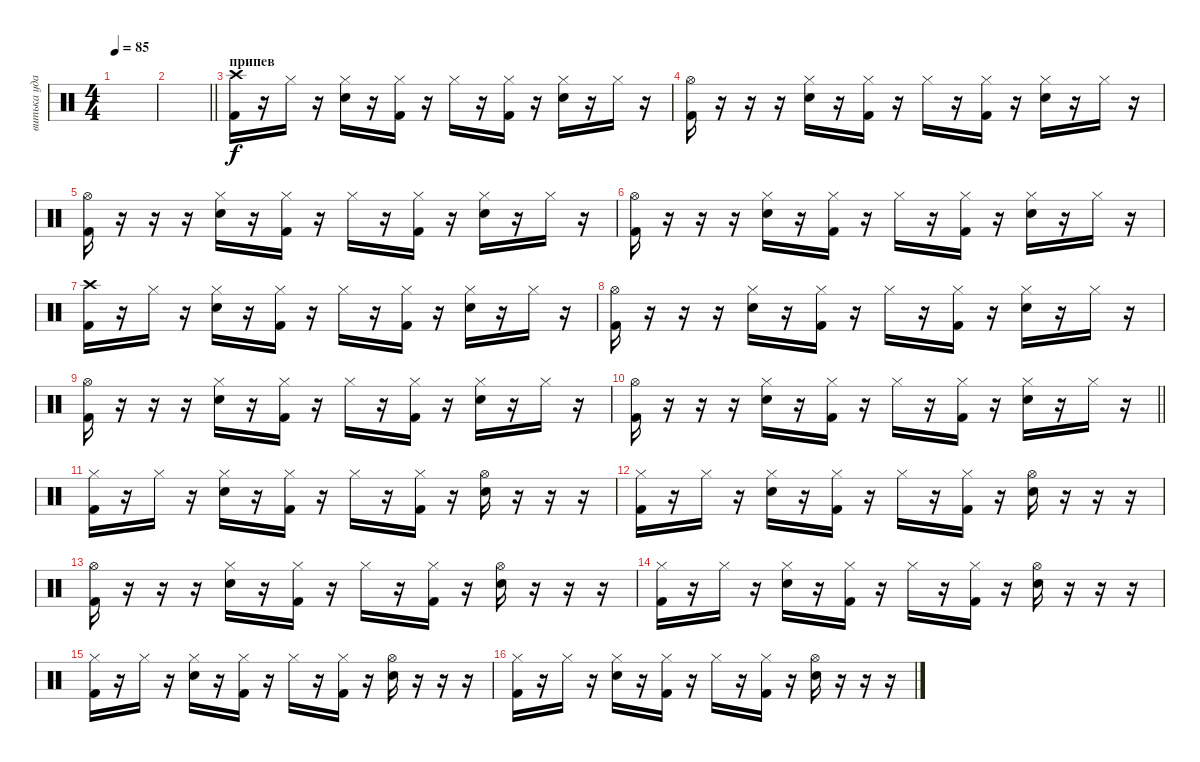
\track ("витька ударные" "витька уда") {instrument percussion}
\staff {score}
\articulation defaults
\ts (4 4)
\tempo 85
\clef neutral
\ks c
|
\barLineRight lightlight
|
\section ("" "припев")
("Kick (hit) 2" "Crash high (hit)").16 r.16 "Hi-Hat (closed)".16 r.16 ("Snare (hit) 2" "Hi-Hat (closed)").16 r.16 ("Kick (hit) 2" "Hi-Hat (closed)").16 r.16 "Hi-Hat (closed)".16 r.16 ("Kick (hit) 2" "Hi-Hat (closed)").16 r.16 ("Snare (hit) 2" "Hi-Hat (closed)").16 r.16 "Hi-Hat (closed)".16 r.16 |
("Kick (hit) 2" "Hi-Hat (open)").16 r.16 r.16 r.16 ("Snare (hit) 2" "Hi-Hat (closed)").16 r.16 ("Kick (hit) 2" "Hi-Hat (closed)").16 r.16 "Hi-Hat (closed)".16 r.16 ("Kick (hit) 2" "Hi-Hat (closed)").16 r.16 ("Snare (hit) 2" "Hi-Hat (closed)").16 r.16 "Hi-Hat (closed)".16 r.16 |
("Kick (hit) 2" "Hi-Hat (open)").16 r.16 r.16 r.16 ("Snare (hit) 2" "Hi-Hat (closed)").16 r.16 ("Kick (hit) 2" "Hi-Hat (closed)").16 r.16 "Hi-Hat (closed)".16 r.16 ("Kick (hit) 2" "Hi-Hat (closed)").16 r.16 ("Snare (hit) 2" "Hi-Hat (closed)").16 r.16 "Hi-Hat (closed)".16 r.16 |
("Kick (hit) 2" "Hi-Hat (open)").16 r.16 r.16 r.16 ("Snare (hit) 2" "Hi-Hat (closed)").16 r.16 ("Kick (hit) 2" "Hi-Hat (closed)").16 r.16 "Hi-Hat (closed)".16 r.16 ("Kick (hit) 2" "Hi-Hat (closed)").16 r.16 ("Snare (hit) 2" "Hi-Hat (closed)").16 r.16 "Hi-Hat (closed)".16 r.16 |
("Kick (hit) 2" "Crash high (hit)").16 r.16 "Hi-Hat (closed)".16 r.16 ("Snare (hit) 2" "Hi-Hat (closed)").16 r.16 ("Kick (hit) 2" "Hi-Hat (closed)").16 r.16 "Hi-Hat (closed)".16 r.16 ("Kick (hit) 2" "Hi-Hat (closed)").16 r.16 ("Snare (hit) 2" "Hi-Hat (closed)").16 r.16 "Hi-Hat (closed)".16 r.16 |
("Kick (hit) 2" "Hi-Hat (open)").16 r.16 r.16 r.16 ("Snare (hit) 2" "Hi-Hat (closed)").16 r.16 ("Kick (hit) 2" "Hi-Hat (closed)").16 r.16 "Hi-Hat (closed)".16 r.16 ("Kick (hit) 2" "Hi-Hat (closed)").16 r.16 ("Snare (hit) 2" "Hi-Hat (closed)").16 r.16 "Hi-Hat (closed)".16 r.16 |
("Kick (hit) 2" "Hi-Hat (open)").16 r.16 r.16 r.16 ("Snare (hit) 2" "Hi-Hat (closed)").16 r.16 ("Kick (hit) 2" "Hi-Hat (closed)").16 r.16 "Hi-Hat (closed)".16 r.16 ("Kick (hit) 2" "Hi-Hat (closed)").16 r.16 ("Snare (hit) 2" "Hi-Hat (closed)").16 r.16 "Hi-Hat (closed)".16 r.16 |
\barLineRight lightlight
("Kick (hit) 2" "Hi-Hat (open)").16 r.16 r.16 r.16 ("Snare (hit) 2" "Hi-Hat (closed)").16 r.16 ("Kick (hit) 2" "Hi-Hat (closed)").16 r.16 "Hi-Hat (closed)".16 r.16 ("Kick (hit) 2" "Hi-Hat (closed)").16 r.16 ("Snare (hit) 2" "Hi-Hat (closed)").16 r.16 "Hi-Hat (closed)".16 r.16 |
("Kick (hit) 2" "Hi-Hat (closed)").16 r.16 "Hi-Hat (closed)".16 r.16 ("Snare (hit) 2" "Hi-Hat (closed)").16 r.16 ("Kick (hit) 2" "Hi-Hat (closed)").16 r.16 "Hi-Hat (closed)".16 r.16 ("Kick (hit) 2" "Hi-Hat (closed)").16 r.16 ("Snare (hit) 2" "Hi-Hat (open)").16 r.16 r.16 r.16 |
("Kick (hit) 2" "Hi-Hat (closed)").16 r.16 "Hi-Hat (closed)".16 r.16 ("Snare (hit) 2" "Hi-Hat (closed)").16 r.16 ("Kick (hit) 2" "Hi-Hat (closed)").16 r.16 "Hi-Hat (closed)".16 r.16 ("Kick (hit) 2" "Hi-Hat (closed)").16 r.16 ("Snare (hit) 2" "Hi-Hat (open)").16 r.16 r.16 r.16 |
("Kick (hit) 2" "Hi-Hat (open)").16 r.16 r.16 r.16 ("Snare (hit) 2" "Hi-Hat (closed)").16 r.16 ("Kick (hit) 2" "Hi-Hat (closed)").16 r.16 "Hi-Hat (closed)".16 r.16 ("Kick (hit) 2" "Hi-Hat (closed)").16 r.16 ("Snare (hit) 2" "Hi-Hat (open)").16 r.16 r.16 r.16 |
("Kick (hit) 2" "Hi-Hat (closed)").16 r.16 "Hi-Hat (closed)".16 r.16 ("Snare (hit) 2" "Hi-Hat (closed)").16 r.16 ("Kick (hit) 2" "Hi-Hat (closed)").16 r.16 "Hi-Hat (closed)".16 r.16 ("Kick (hit) 2" "Hi-Hat (closed)").16 r.16 ("Snare (hit) 2" "Hi-Hat (open)").16 r.16 r.16 r.16 |
("Kick (hit) 2" "Hi-Hat (closed)").16 r.16 "Hi-Hat (closed)".16 r.16 ("Snare (hit) 2" "Hi-Hat (closed)").16 r.16 ("Kick (hit) 2" "Hi-Hat (closed)").16 r.16 "Hi-Hat (closed)".16 r.16 ("Kick (hit) 2" "Hi-Hat (closed)").16 r.16 ("Snare (hit) 2" "Hi-Hat (open)").16 r.16 r.16 r.16 |
("Kick (hit) 2" "Hi-Hat (closed)").16 r.16 "Hi-Hat (closed)".16 r.16 ("Snare (hit) 2" "Hi-Hat (closed)").16 r.16 ("Kick (hit) 2" "Hi-Hat (closed)").16 r.16 "Hi-Hat (closed)".16 r.16 ("Kick (hit) 2" "Hi-Hat (closed)").16 r.16 ("Snare (hit) 2" "Hi-Hat (open)").16 r.16 r.16 r.16
